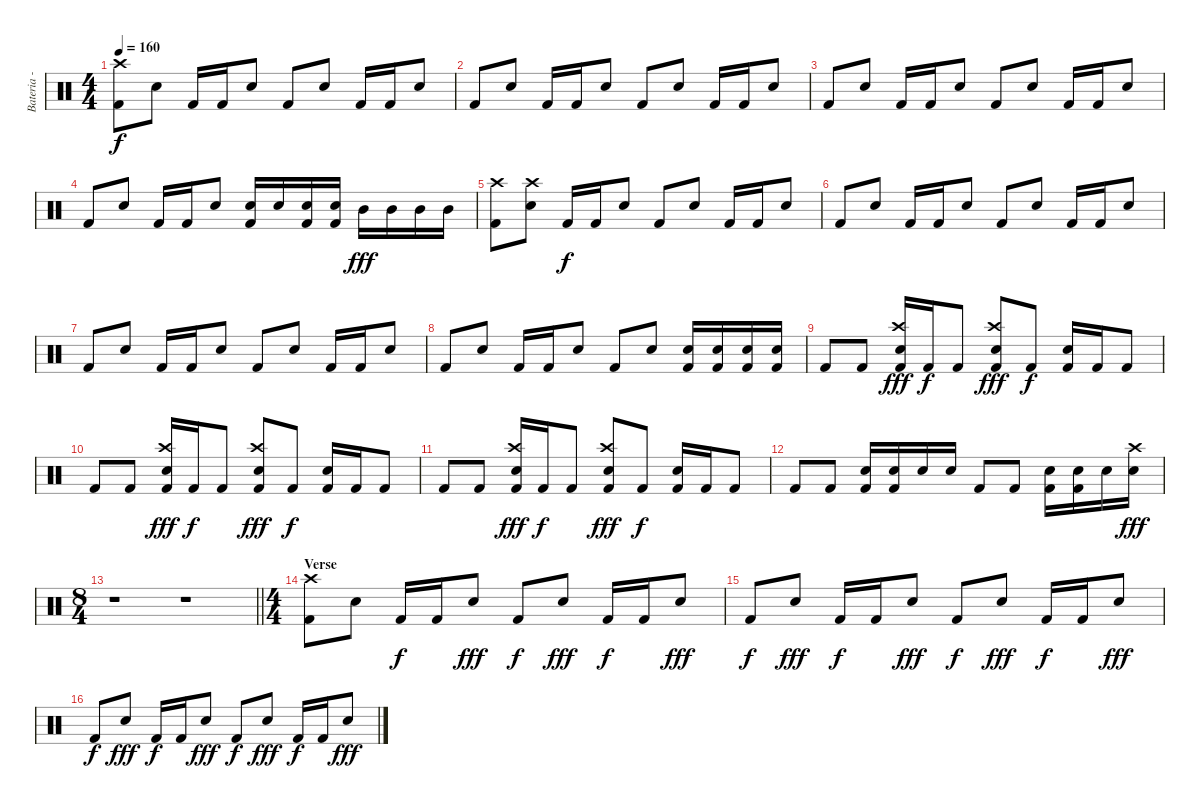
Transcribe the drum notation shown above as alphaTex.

\track ("Bateria - Larzon" "Bateria - ") {instrument percussion}
\staff {score}
\articulation defaults
\ts (4 4)
\tempo 160
\clef neutral
\ks c
("Kick (hit) 2" "Crash high (hit)").8{dy f} "Snare (hit) 2".8 "Kick (hit) 2".16 "Kick (hit) 2".16 "Snare (hit) 2".8 "Kick (hit) 2".8 "Snare (hit) 2".8 "Kick (hit) 2".16 "Kick (hit) 2".16 "Snare (hit) 2".8 |
"Kick (hit) 2".8 "Snare (hit) 2".8 "Kick (hit) 2".16 "Kick (hit) 2".16 "Snare (hit) 2".8 "Kick (hit) 2".8 "Snare (hit) 2".8 "Kick (hit) 2".16 "Kick (hit) 2".16 "Snare (hit) 2".8 |
"Kick (hit) 2".8 "Snare (hit) 2".8 "Kick (hit) 2".16 "Kick (hit) 2".16 "Snare (hit) 2".8 "Kick (hit) 2".8 "Snare (hit) 2".8 "Kick (hit) 2".16 "Kick (hit) 2".16 "Snare (hit) 2".8 |
"Kick (hit) 2".8 "Snare (hit) 2".8 "Kick (hit) 2".16 "Kick (hit) 2".16 "Snare (hit) 2".8 ("Kick (hit) 2" "Snare (hit) 2").16 "Snare (hit) 2".16 ("Kick (hit) 2" "Snare (hit) 2").16 ("Kick (hit) 2" "Snare (hit) 2").16 "Mid Tom (hit)".16{dy fff} "Mid Tom (hit)".16 "Mid Tom (hit)".16 "Mid Tom (hit)".16 |
("Kick (hit) 2" "Crash high (hit)").8 ("Crash high (hit)" "Snare (hit) 2").8 "Kick (hit) 2".16{dy f} "Kick (hit) 2".16 "Snare (hit) 2".8 "Kick (hit) 2".8 "Snare (hit) 2".8 "Kick (hit) 2".16 "Kick (hit) 2".16 "Snare (hit) 2".8 |
"Kick (hit) 2".8 "Snare (hit) 2".8 "Kick (hit) 2".16 "Kick (hit) 2".16 "Snare (hit) 2".8 "Kick (hit) 2".8 "Snare (hit) 2".8 "Kick (hit) 2".16 "Kick (hit) 2".16 "Snare (hit) 2".8 |
"Kick (hit) 2".8 "Snare (hit) 2".8 "Kick (hit) 2".16 "Kick (hit) 2".16 "Snare (hit) 2".8 "Kick (hit) 2".8 "Snare (hit) 2".8 "Kick (hit) 2".16 "Kick (hit) 2".16 "Snare (hit) 2".8 |
"Kick (hit) 2".8 "Snare (hit) 2".8 "Kick (hit) 2".16 "Kick (hit) 2".16 "Snare (hit) 2".8 "Kick (hit) 2".8 "Snare (hit) 2".8 ("Kick (hit) 2" "Snare (hit) 2").16 ("Kick (hit) 2" "Snare (hit) 2").16 ("Kick (hit) 2" "Snare (hit) 2").16 ("Kick (hit) 2" "Snare (hit) 2").16 |
"Kick (hit) 2".8 "Kick (hit) 2".8 ("Kick (hit) 2" "Crash high (hit)" "Snare (hit) 2").16{dy fff} "Kick (hit) 2".16{dy f} "Kick (hit) 2".8 ("Kick (hit) 2" "Snare (hit) 2" "Crash high (hit)").8{dy fff} "Kick (hit) 2".8{dy f} ("Kick (hit) 2" "Snare (hit) 2").16 "Kick (hit) 2".16 "Kick (hit) 2".8 |
"Kick (hit) 2".8 "Kick (hit) 2".8 ("Kick (hit) 2" "Crash high (hit)" "Snare (hit) 2").16{dy fff} "Kick (hit) 2".16{dy f} "Kick (hit) 2".8 ("Kick (hit) 2" "Snare (hit) 2" "Crash high (hit)").8{dy fff} "Kick (hit) 2".8{dy f} ("Kick (hit) 2" "Snare (hit) 2").16 "Kick (hit) 2".16 "Kick (hit) 2".8 |
"Kick (hit) 2".8 "Kick (hit) 2".8 ("Kick (hit) 2" "Crash high (hit)" "Snare (hit) 2").16{dy fff} "Kick (hit) 2".16{dy f} "Kick (hit) 2".8 ("Kick (hit) 2" "Snare (hit) 2" "Crash high (hit)").8{dy fff} "Kick (hit) 2".8{dy f} ("Kick (hit) 2" "Snare (hit) 2").16 "Kick (hit) 2".16 "Kick (hit) 2".8 |
"Kick (hit) 2".8 "Kick (hit) 2".8 ("Kick (hit) 2" "Snare (hit) 2").16 ("Kick (hit) 2" "Snare (hit) 2").16 "Snare (hit) 2".16 "Snare (hit) 2".16 "Kick (hit) 2".8 "Kick (hit) 2".8 ("Kick (hit) 2" "Snare (hit) 2").16 ("Kick (hit) 2" "Snare (hit) 2").16 "Snare (hit) 2".16 ("Crash high (hit)" "Snare (hit) 2").16{dy fff} |
\ts (8 4)
\barLineRight lightlight
r.1 r.1 |
\ts (4 4)
\section ("" "Verse")
("Kick (hit) 2" "Crash high (hit)").8 "Snare (hit) 2".8 "Kick (hit) 2".16{dy f} "Kick (hit) 2".16 "Snare (hit) 2".8{dy fff} "Kick (hit) 2".8{dy f} "Snare (hit) 2".8{dy fff} "Kick (hit) 2".16{dy f} "Kick (hit) 2".16 "Snare (hit) 2".8{dy fff} |
"Kick (hit) 2".8{dy f} "Snare (hit) 2".8{dy fff} "Kick (hit) 2".16{dy f} "Kick (hit) 2".16 "Snare (hit) 2".8{dy fff} "Kick (hit) 2".8{dy f} "Snare (hit) 2".8{dy fff} "Kick (hit) 2".16{dy f} "Kick (hit) 2".16 "Snare (hit) 2".8{dy fff} |
"Kick (hit) 2".8{dy f} "Snare (hit) 2".8{dy fff} "Kick (hit) 2".16{dy f} "Kick (hit) 2".16 "Snare (hit) 2".8{dy fff} "Kick (hit) 2".8{dy f} "Snare (hit) 2".8{dy fff} "Kick (hit) 2".16{dy f} "Kick (hit) 2".16 "Snare (hit) 2".8{dy fff}
